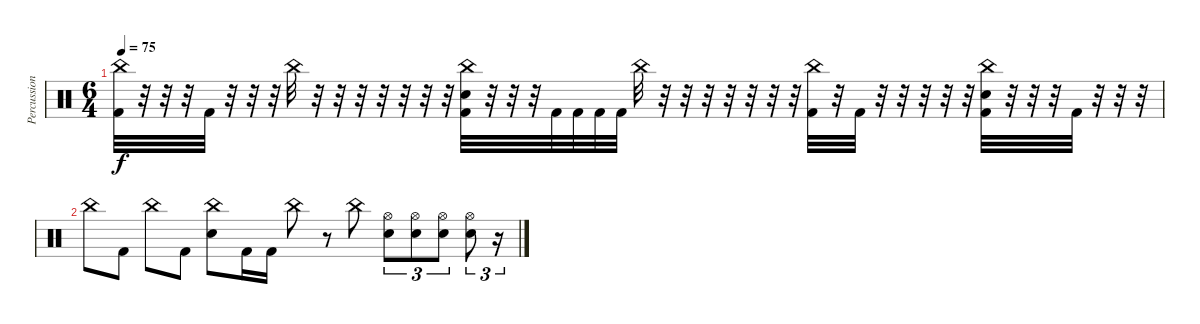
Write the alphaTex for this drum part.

\track ("Percussion" "Percussion") {instrument percussion}
\staff {score}
\articulation defaults
\ts (6 4)
\tempo 75
\clef neutral
\ks c
("China (hit)" "Kick (hit) 2").32{dy f} r.32 r.32 r.32 "Kick (hit) 2".32 r.32 r.32 r.32 "China (hit)".32 r.32 r.32 r.32 r.32 r.32 r.32 r.32 ("China (hit)" "Snare (hit) 2" "Kick (hit) 2").32 r.32 r.32 r.32 "Kick (hit) 2".32 "Kick (hit) 2".32 "Kick (hit) 2".32 "Kick (hit) 2".32 "China (hit)".32 r.32 r.32 r.32 r.32 r.32 r.32 r.32 ("China (hit)" "Kick (hit) 2").32 r.32 "Kick (hit) 2".32 r.32 r.32 r.32 r.32 r.32 ("China (hit)" "Snare (hit) 2" "Kick (hit) 2").32 r.32 r.32 r.32 "Kick (hit) 2".32 r.32 r.32 r.32 |
"China (hit)".8 "Kick (hit) 2".8 "China (hit)".8 "Kick (hit) 2".8 ("China (hit)" "Snare (hit) 2").8 "Kick (hit) 2".16 "Kick (hit) 2".16 "China (hit)".8 r.8 "China (hit)".8 ("Hi-Hat (open)" "Electric Snare (hit)").8{tu (3 2)} ("Hi-Hat (open)" "Electric Snare (hit)").8{tu (3 2)} ("Hi-Hat (open)" "Electric Snare (hit)").8{tu (3 2)} ("Hi-Hat (open)" "Electric Snare (hit)").8{tu (3 2)} r.16{tu (3 2)}
